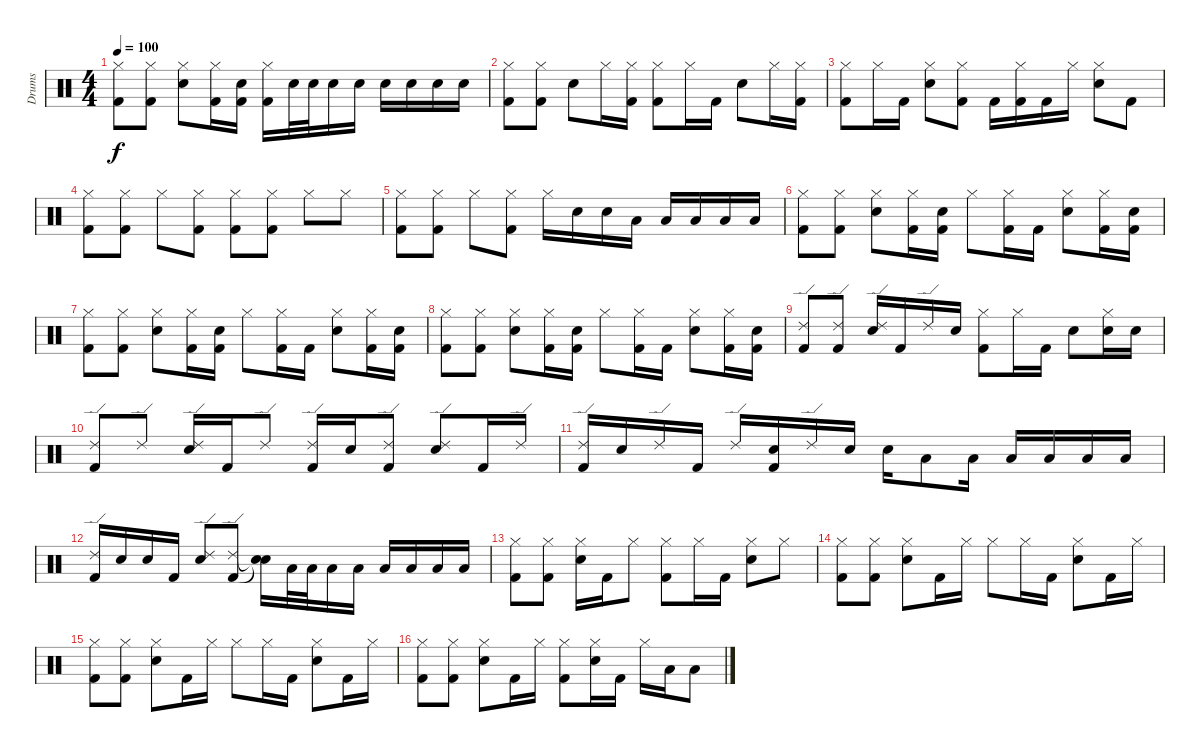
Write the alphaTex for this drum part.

\track ("Drums" "Drums") {instrument percussion}
\staff {score}
\articulation defaults
\ts (4 4)
\tempo 100
\clef neutral
\ks c
("Hi-Hat (closed)" "Kick (hit) 2").8{dy f} ("Hi-Hat (closed)" "Kick (hit) 2").8 ("Hi-Hat (closed)" "Electric Snare (hit)").8 ("Hi-Hat (closed)" "Kick (hit) 2").16 ("Electric Snare (hit)" "Kick (hit) 2").16 ("Hi-Hat (closed)" "Kick (hit) 2").16 "Electric Snare (hit)".32 "Electric Snare (hit)".32 "Electric Snare (hit)".16 "Electric Snare (hit)".16 "Electric Snare (hit)".16 "Electric Snare (hit)".16 "Electric Snare (hit)".16 "Electric Snare (hit)".16 |
("Hi-Hat (closed)" "Kick (hit) 2").8 ("Hi-Hat (closed)" "Kick (hit) 2").8 "Electric Snare (hit)".8 "Hi-Hat (closed)".16 ("Hi-Hat (closed)" "Kick (hit) 2").16 ("Hi-Hat (closed)" "Kick (hit) 2").8 "Hi-Hat (closed)".16 "Kick (hit) 2".16 "Electric Snare (hit)".8 "Hi-Hat (closed)".16 ("Hi-Hat (closed)" "Kick (hit) 2").16 |
("Hi-Hat (closed)" "Kick (hit) 2").8 "Hi-Hat (closed)".16 "Kick (hit) 2".16 ("Hi-Hat (closed)" "Electric Snare (hit)").8 ("Hi-Hat (closed)" "Kick (hit) 2").8 "Kick (hit) 2".16 ("Hi-Hat (closed)" "Kick (hit) 2").16 "Kick (hit) 2".16 "Hi-Hat (closed)".16 ("Hi-Hat (closed)" "Electric Snare (hit)").8 "Kick (hit) 2".8 |
("Hi-Hat (closed)" "Kick (hit) 2").8 ("Hi-Hat (closed)" "Kick (hit) 2").8 "Hi-Hat (closed)".8 ("Hi-Hat (closed)" "Kick (hit) 2").8 ("Hi-Hat (closed)" "Kick (hit) 2").8 ("Hi-Hat (closed)" "Kick (hit) 2").8 "Hi-Hat (closed)".8 "Hi-Hat (closed)".8 |
("Hi-Hat (closed)" "Kick (hit) 2").8 ("Hi-Hat (closed)" "Kick (hit) 2").8 "Hi-Hat (closed)".8 ("Hi-Hat (closed)" "Kick (hit) 2").8 "Hi-Hat (closed)".16 "Electric Snare (hit)".16 "Electric Snare (hit)".16 "Low Floor Tom (hit)".16 "Low Floor Tom (hit)".16 "Low Floor Tom (hit)".16 "Low Floor Tom (hit)".16 "Low Floor Tom (hit)".16 |
("Hi-Hat (closed)" "Kick (hit) 2").8 ("Hi-Hat (closed)" "Kick (hit) 2").8 ("Hi-Hat (closed)" "Electric Snare (hit)").8 ("Hi-Hat (closed)" "Kick (hit) 2").16 ("Electric Snare (hit)" "Kick (hit) 2").16 "Hi-Hat (closed)".8 ("Hi-Hat (closed)" "Kick (hit) 2").16 "Kick (hit) 2".16 ("Hi-Hat (closed)" "Electric Snare (hit)").8 ("Hi-Hat (closed)" "Kick (hit) 2").16 ("Electric Snare (hit)" "Kick (hit) 2").16 |
("Hi-Hat (closed)" "Kick (hit) 2").8 ("Hi-Hat (closed)" "Kick (hit) 2").8 ("Hi-Hat (closed)" "Electric Snare (hit)").8 ("Hi-Hat (closed)" "Kick (hit) 2").16 ("Electric Snare (hit)" "Kick (hit) 2").16 "Hi-Hat (closed)".8 ("Hi-Hat (closed)" "Kick (hit) 2").16 "Kick (hit) 2".16 ("Hi-Hat (closed)" "Electric Snare (hit)").8 ("Hi-Hat (closed)" "Kick (hit) 2").16 ("Electric Snare (hit)" "Kick (hit) 2").16 |
("Hi-Hat (closed)" "Kick (hit) 2").8 ("Hi-Hat (closed)" "Kick (hit) 2").8 ("Hi-Hat (closed)" "Electric Snare (hit)").8 ("Hi-Hat (closed)" "Kick (hit) 2").16 ("Electric Snare (hit)" "Kick (hit) 2").16 "Hi-Hat (closed)".8 ("Hi-Hat (closed)" "Kick (hit) 2").16 "Kick (hit) 2".16 ("Hi-Hat (closed)" "Electric Snare (hit)").8 ("Hi-Hat (closed)" "Kick (hit) 2").16 ("Electric Snare (hit)" "Kick (hit) 2").16 |
("Ride (edge) 2" "Kick (hit) 2").8 ("Ride (edge) 2" "Kick (hit) 2").8 ("Ride (edge) 2" "Electric Snare (hit)").16 "Kick (hit) 2".16 "Ride (edge) 2".16 "Electric Snare (hit)".16 ("Hi-Hat (closed)" "Kick (hit) 2").8 "Hi-Hat (closed)".16 "Kick (hit) 2".16 "Electric Snare (hit)".8 ("Hi-Hat (closed)" "Electric Snare (hit)").16 "Electric Snare (hit)".16 |
("Ride (edge) 2" "Kick (hit) 2").8 "Ride (edge) 2".8 ("Ride (edge) 2" "Electric Snare (hit)").16 "Kick (hit) 2".16 "Ride (edge) 2".8 ("Ride (edge) 2" "Kick (hit) 2").16 "Electric Snare (hit)".16 ("Ride (edge) 2" "Kick (hit) 2").8 ("Ride (edge) 2" "Electric Snare (hit)").8 "Kick (hit) 2".16 "Ride (edge) 2".16 |
("Ride (edge) 2" "Kick (hit) 2").16 "Electric Snare (hit)".16 "Ride (edge) 2".16 "Kick (hit) 2".16 "Ride (edge) 2".16 ("Electric Snare (hit)" "Kick (hit) 2").16 "Ride (edge) 2".16 "Electric Snare (hit)".16 "Electric Snare (hit)".16 "Low Floor Tom (hit)".8 "Low Floor Tom (hit)".16 "Low Floor Tom (hit)".16 "Low Floor Tom (hit)".16 "Low Floor Tom (hit)".16 "Low Floor Tom (hit)".16 |
("Ride (edge) 2" "Kick (hit) 2").16 "Electric Snare (hit)".16 "Electric Snare (hit)".16 "Kick (hit) 2".16 ("Ride (edge) 2" "Electric Snare (hit)").8 ("Ride (edge) 2" "Kick (hit) 2").8 ("Snare (hit)"{t} "Snare (hit)"{t}).16 "Low Floor Tom (hit)".32 "Low Floor Tom (hit)".32 "Low Floor Tom (hit)".16 "Low Floor Tom (hit)".16 "Low Tom (hit)".16 "Low Tom (hit)".16 "Low Tom (hit)".16 "Low Tom (hit)".16 |
("Hi-Hat (closed)" "Kick (hit) 2").8 ("Hi-Hat (closed)" "Kick (hit) 2").8 ("Hi-Hat (closed)" "Electric Snare (hit)").16 "Kick (hit) 2".16 "Hi-Hat (closed)".8 ("Hi-Hat (closed)" "Kick (hit) 2").8 "Hi-Hat (closed)".16 "Kick (hit) 2".16 ("Hi-Hat (closed)" "Electric Snare (hit)").8 "Hi-Hat (closed)".8 |
("Hi-Hat (closed)" "Kick (hit) 2").8 ("Hi-Hat (closed)" "Kick (hit) 2").8 ("Hi-Hat (closed)" "Electric Snare (hit)").8 "Kick (hit) 2".16 "Hi-Hat (closed)".16 "Hi-Hat (closed)".8 "Hi-Hat (closed)".16 "Kick (hit) 2".16 ("Hi-Hat (closed)" "Electric Snare (hit)").8 "Kick (hit) 2".16 "Hi-Hat (closed)".16 |
("Hi-Hat (closed)" "Kick (hit) 2").8 ("Hi-Hat (closed)" "Kick (hit) 2").8 ("Hi-Hat (closed)" "Electric Snare (hit)").8 "Kick (hit) 2".16 "Hi-Hat (closed)".16 "Hi-Hat (closed)".8 "Hi-Hat (closed)".16 "Kick (hit) 2".16 ("Hi-Hat (closed)" "Electric Snare (hit)").8 "Kick (hit) 2".16 "Hi-Hat (closed)".16 |
("Hi-Hat (closed)" "Kick (hit) 2").8 ("Hi-Hat (closed)" "Kick (hit) 2").8 ("Hi-Hat (closed)" "Electric Snare (hit)").8 "Kick (hit) 2".16 "Hi-Hat (closed)".16 ("Hi-Hat (closed)" "Kick (hit) 2").8 ("Hi-Hat (closed)" "Electric Snare (hit)").16 "Kick (hit) 2".16 "Hi-Hat (closed)".16 "Low Floor Tom (hit)".16 "Low Floor Tom (hit)".8
